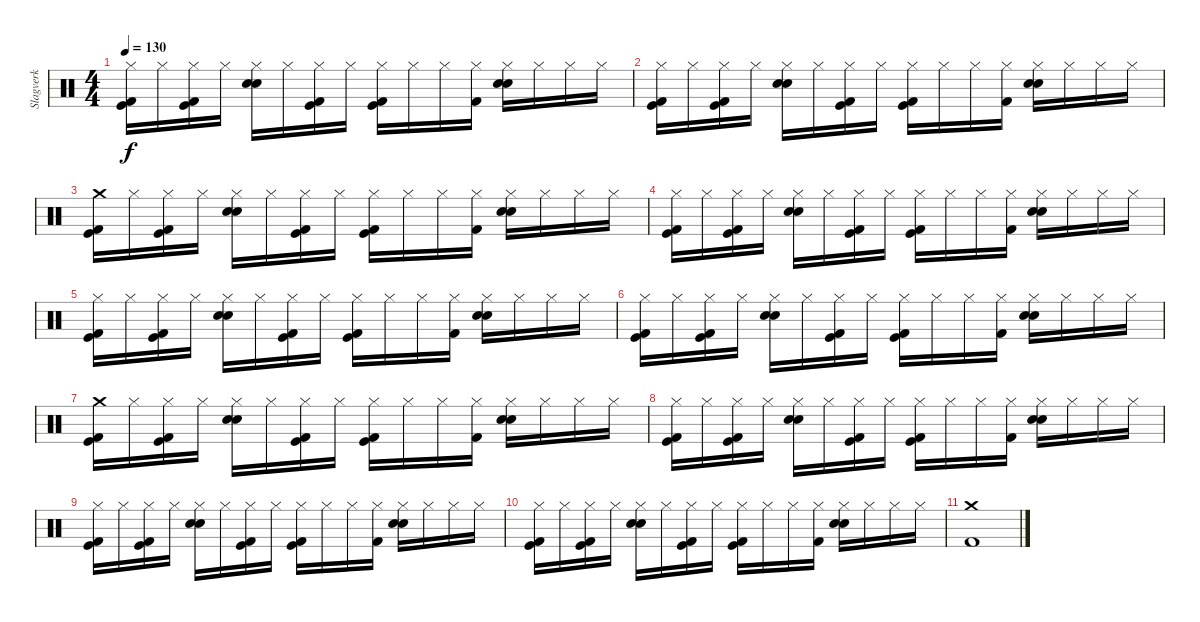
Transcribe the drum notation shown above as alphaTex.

\track ("Slagverk" "Slagverk") {instrument percussion}
\staff {score}
\articulation defaults
\ts (4 4)
\tempo 130
\clef neutral
\ks c
("Hi-Hat (closed)" "Kick (hit)" "Kick (hit) 2").16{dy f} "Hi-Hat (closed)".16 ("Hi-Hat (closed)" "Kick (hit)" "Kick (hit) 2").16 "Hi-Hat (closed)".16 ("Hi-Hat (closed)" "Snare (hit) 2" "Electric Snare (hit)").16 "Hi-Hat (closed)".16 ("Hi-Hat (closed)" "Kick (hit) 2" "Kick (hit)").16 "Hi-Hat (closed)".16 ("Hi-Hat (closed)" "Kick (hit)" "Kick (hit) 2").16 "Hi-Hat (closed)".16 "Hi-Hat (closed)".16 ("Hi-Hat (closed)" "Kick (hit) 2").16 ("Hi-Hat (closed)" "Snare (hit) 2" "Electric Snare (hit)").16 "Hi-Hat (closed)".16 "Hi-Hat (closed)".16 "Hi-Hat (closed)".16 |
("Hi-Hat (closed)" "Kick (hit)" "Kick (hit) 2").16 "Hi-Hat (closed)".16 ("Hi-Hat (closed)" "Kick (hit)" "Kick (hit) 2").16 "Hi-Hat (closed)".16 ("Hi-Hat (closed)" "Snare (hit) 2" "Electric Snare (hit)").16 "Hi-Hat (closed)".16 ("Hi-Hat (closed)" "Kick (hit) 2" "Kick (hit)").16 "Hi-Hat (closed)".16 ("Hi-Hat (closed)" "Kick (hit)" "Kick (hit) 2").16 "Hi-Hat (closed)".16 "Hi-Hat (closed)".16 ("Hi-Hat (closed)" "Kick (hit) 2").16 ("Hi-Hat (closed)" "Snare (hit) 2" "Electric Snare (hit)").16 "Hi-Hat (closed)".16 "Hi-Hat (closed)".16 "Hi-Hat (closed)".16 |
("Crash medium (hit)" "Kick (hit)" "Kick (hit) 2").16 "Hi-Hat (closed)".16 ("Hi-Hat (closed)" "Kick (hit)" "Kick (hit) 2").16 "Hi-Hat (closed)".16 ("Hi-Hat (closed)" "Snare (hit) 2" "Electric Snare (hit)").16 "Hi-Hat (closed)".16 ("Hi-Hat (closed)" "Kick (hit) 2" "Kick (hit)").16 "Hi-Hat (closed)".16 ("Hi-Hat (closed)" "Kick (hit)" "Kick (hit) 2").16 "Hi-Hat (closed)".16 "Hi-Hat (closed)".16 ("Hi-Hat (closed)" "Kick (hit) 2").16 ("Hi-Hat (closed)" "Snare (hit) 2" "Electric Snare (hit)").16 "Hi-Hat (closed)".16 "Hi-Hat (closed)".16 "Hi-Hat (closed)".16 |
("Hi-Hat (closed)" "Kick (hit)" "Kick (hit) 2").16 "Hi-Hat (closed)".16 ("Hi-Hat (closed)" "Kick (hit)" "Kick (hit) 2").16 "Hi-Hat (closed)".16 ("Hi-Hat (closed)" "Snare (hit) 2" "Electric Snare (hit)").16 "Hi-Hat (closed)".16 ("Hi-Hat (closed)" "Kick (hit) 2" "Kick (hit)").16 "Hi-Hat (closed)".16 ("Hi-Hat (closed)" "Kick (hit)" "Kick (hit) 2").16 "Hi-Hat (closed)".16 "Hi-Hat (closed)".16 ("Hi-Hat (closed)" "Kick (hit) 2").16 ("Hi-Hat (closed)" "Snare (hit) 2" "Electric Snare (hit)").16 "Hi-Hat (closed)".16 "Hi-Hat (closed)".16 "Hi-Hat (closed)".16 |
("Hi-Hat (closed)" "Kick (hit)" "Kick (hit) 2").16 "Hi-Hat (closed)".16 ("Hi-Hat (closed)" "Kick (hit)" "Kick (hit) 2").16 "Hi-Hat (closed)".16 ("Hi-Hat (closed)" "Snare (hit) 2" "Electric Snare (hit)").16 "Hi-Hat (closed)".16 ("Hi-Hat (closed)" "Kick (hit) 2" "Kick (hit)").16 "Hi-Hat (closed)".16 ("Hi-Hat (closed)" "Kick (hit)" "Kick (hit) 2").16 "Hi-Hat (closed)".16 "Hi-Hat (closed)".16 ("Hi-Hat (closed)" "Kick (hit) 2").16 ("Hi-Hat (closed)" "Snare (hit) 2" "Electric Snare (hit)").16 "Hi-Hat (closed)".16 "Hi-Hat (closed)".16 "Hi-Hat (closed)".16 |
("Hi-Hat (closed)" "Kick (hit)" "Kick (hit) 2").16 "Hi-Hat (closed)".16 ("Hi-Hat (closed)" "Kick (hit)" "Kick (hit) 2").16 "Hi-Hat (closed)".16 ("Hi-Hat (closed)" "Snare (hit) 2" "Electric Snare (hit)").16 "Hi-Hat (closed)".16 ("Hi-Hat (closed)" "Kick (hit) 2" "Kick (hit)").16 "Hi-Hat (closed)".16 ("Hi-Hat (closed)" "Kick (hit)" "Kick (hit) 2").16 "Hi-Hat (closed)".16 "Hi-Hat (closed)".16 ("Hi-Hat (closed)" "Kick (hit) 2").16 ("Hi-Hat (closed)" "Snare (hit) 2" "Electric Snare (hit)").16 "Hi-Hat (closed)".16 "Hi-Hat (closed)".16 "Hi-Hat (closed)".16 |
("Crash medium (hit)" "Kick (hit)" "Kick (hit) 2").16 "Hi-Hat (closed)".16 ("Hi-Hat (closed)" "Kick (hit)" "Kick (hit) 2").16 "Hi-Hat (closed)".16 ("Hi-Hat (closed)" "Snare (hit) 2" "Electric Snare (hit)").16 "Hi-Hat (closed)".16 ("Hi-Hat (closed)" "Kick (hit) 2" "Kick (hit)").16 "Hi-Hat (closed)".16 ("Hi-Hat (closed)" "Kick (hit)" "Kick (hit) 2").16 "Hi-Hat (closed)".16 "Hi-Hat (closed)".16 ("Hi-Hat (closed)" "Kick (hit) 2").16 ("Hi-Hat (closed)" "Snare (hit) 2" "Electric Snare (hit)").16 "Hi-Hat (closed)".16 "Hi-Hat (closed)".16 "Hi-Hat (closed)".16 |
("Hi-Hat (closed)" "Kick (hit)" "Kick (hit) 2").16 "Hi-Hat (closed)".16 ("Hi-Hat (closed)" "Kick (hit)" "Kick (hit) 2").16 "Hi-Hat (closed)".16 ("Hi-Hat (closed)" "Snare (hit) 2" "Electric Snare (hit)").16 "Hi-Hat (closed)".16 ("Hi-Hat (closed)" "Kick (hit) 2" "Kick (hit)").16 "Hi-Hat (closed)".16 ("Hi-Hat (closed)" "Kick (hit)" "Kick (hit) 2").16 "Hi-Hat (closed)".16 "Hi-Hat (closed)".16 ("Hi-Hat (closed)" "Kick (hit) 2").16 ("Hi-Hat (closed)" "Snare (hit) 2" "Electric Snare (hit)").16 "Hi-Hat (closed)".16 "Hi-Hat (closed)".16 "Hi-Hat (closed)".16 |
("Hi-Hat (closed)" "Kick (hit)" "Kick (hit) 2").16 "Hi-Hat (closed)".16 ("Hi-Hat (closed)" "Kick (hit)" "Kick (hit) 2").16 "Hi-Hat (closed)".16 ("Hi-Hat (closed)" "Snare (hit) 2" "Electric Snare (hit)").16 "Hi-Hat (closed)".16 ("Hi-Hat (closed)" "Kick (hit) 2" "Kick (hit)").16 "Hi-Hat (closed)".16 ("Hi-Hat (closed)" "Kick (hit)" "Kick (hit) 2").16 "Hi-Hat (closed)".16 "Hi-Hat (closed)".16 ("Hi-Hat (closed)" "Kick (hit) 2").16 ("Hi-Hat (closed)" "Snare (hit) 2" "Electric Snare (hit)").16 "Hi-Hat (closed)".16 "Hi-Hat (closed)".16 "Hi-Hat (closed)".16 |
("Hi-Hat (closed)" "Kick (hit)" "Kick (hit) 2").16 "Hi-Hat (closed)".16 ("Hi-Hat (closed)" "Kick (hit)" "Kick (hit) 2").16 "Hi-Hat (closed)".16 ("Hi-Hat (closed)" "Snare (hit) 2" "Electric Snare (hit)").16 "Hi-Hat (closed)".16 ("Hi-Hat (closed)" "Kick (hit) 2" "Kick (hit)").16 "Hi-Hat (closed)".16 ("Hi-Hat (closed)" "Kick (hit)" "Kick (hit) 2").16 "Hi-Hat (closed)".16 "Hi-Hat (closed)".16 ("Hi-Hat (closed)" "Kick (hit) 2").16 ("Hi-Hat (closed)" "Snare (hit) 2" "Electric Snare (hit)").16 "Hi-Hat (closed)".16 "Hi-Hat (closed)".16 "Hi-Hat (closed)".16 |
("Crash medium (hit)" "Kick (hit) 2").1
